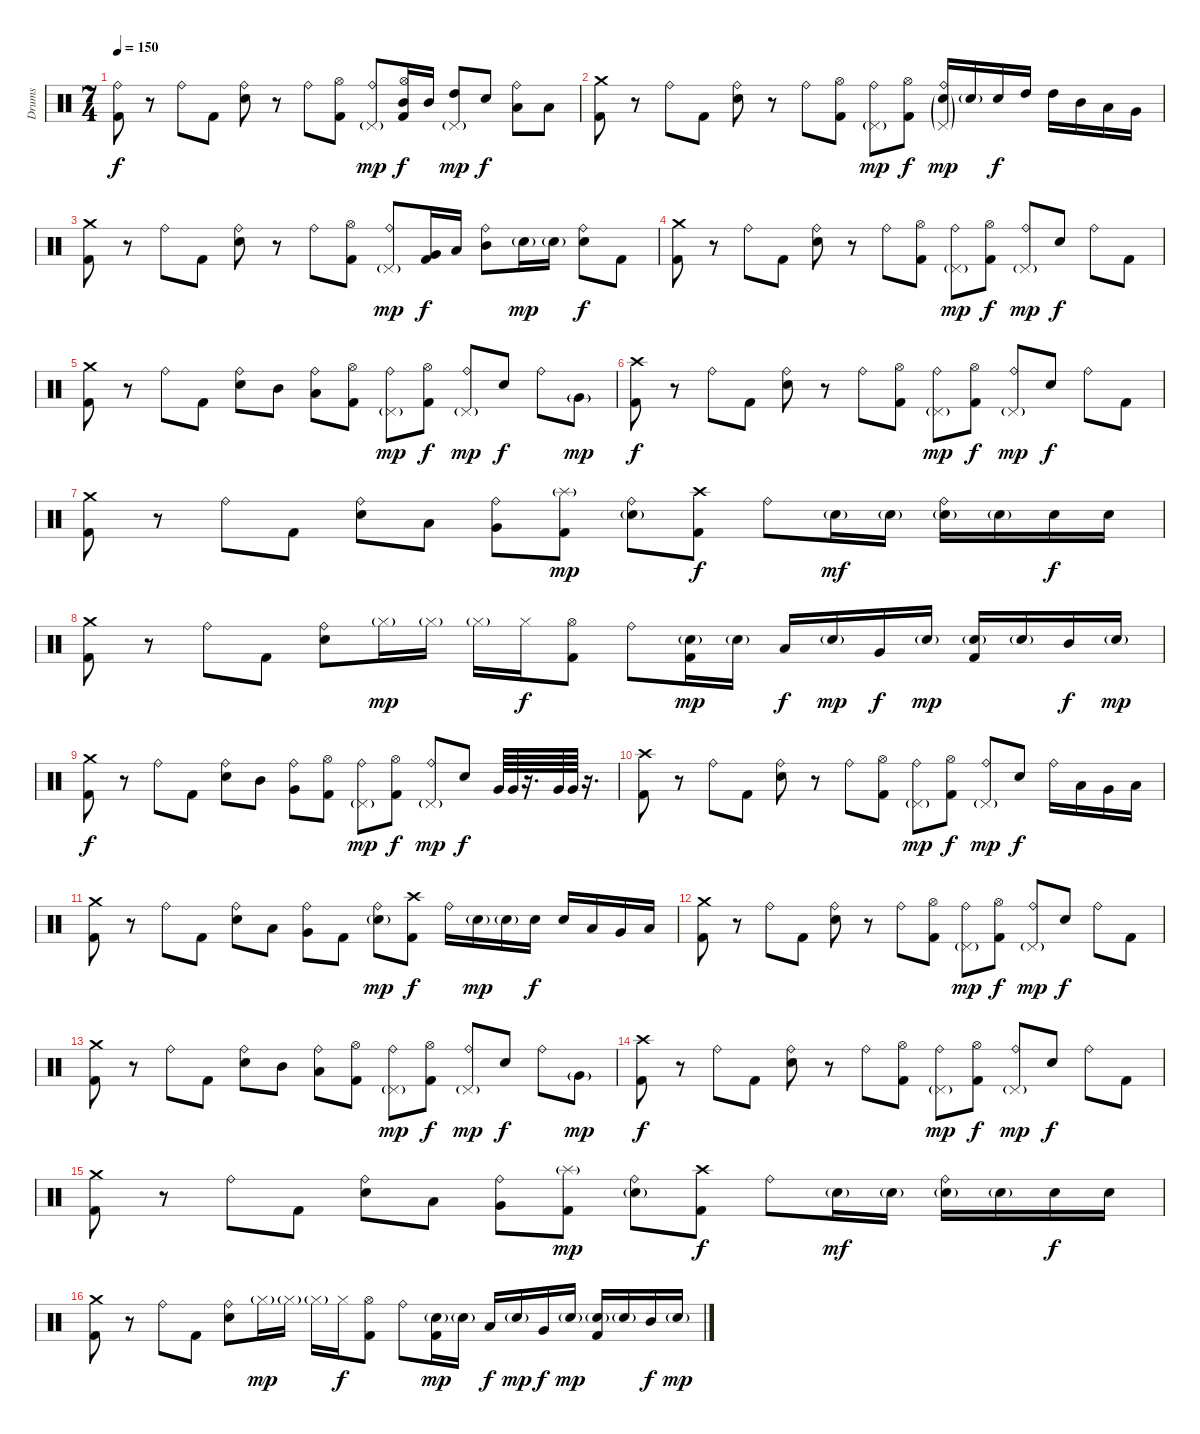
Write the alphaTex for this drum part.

\track ("Drums" "Drums") {instrument percussion}
\staff {score}
\articulation defaults
\ts (7 4)
\tempo 150
\clef neutral
\ks c
("Ride (bell)" "Kick (hit) 2").8{dy f} r.8 "Ride (bell)".8 "Kick (hit) 2".8 ("Ride (bell)" "Electric Snare (hit)").8 r.8 "Ride (bell)".8 ("Hi-Hat (open)" "Kick (hit) 2").8 ("Ride (bell)" "Pedal Hi-Hat (hit)"{g}).8{dy mp} ("Mid Tom (hit)" "Hi-Hat (open)" "Kick (hit) 2").16{dy f} "Mid Tom (hit)".16 ("High Tom (hit)" "Pedal Hi-Hat (hit)"{g}).8{dy mp} "Electric Snare (hit)".8{dy f} ("Ride (bell)" "Low Tom (hit)").8 "Low Floor Tom (hit)".8 |
("Crash medium (hit)" "Kick (hit) 2").8 r.8 "Ride (bell)".8 "Kick (hit) 2".8 ("Ride (bell)" "Electric Snare (hit)").8 r.8 "Ride (bell)".8 ("Hi-Hat (open)" "Kick (hit) 2").8 ("Ride (bell)" "Pedal Hi-Hat (hit)"{g}).8{dy mp} ("Hi-Hat (open)" "Kick (hit) 2").8{dy f} ("Ride (bell)" "Pedal Hi-Hat (hit)"{g} "Electric Snare (hit)"{g}).16{dy mp} "Electric Snare (hit)"{g}.16 "Electric Snare (hit)".16{dy f} "High Tom (hit)".16 "High Tom (hit)".16 "Mid Tom (hit)".16 "Low Tom (hit)".16 "Very Low Tom (hit)".16 |
("Crash medium (hit)" "Kick (hit) 2").8 r.8 "Ride (bell)".8 "Kick (hit) 2".8 ("Ride (bell)" "Electric Snare (hit)").8 r.8 "Ride (bell)".8 ("Hi-Hat (open)" "Kick (hit) 2").8 ("Ride (bell)" "Pedal Hi-Hat (hit)"{g}).8{dy mp} ("Very Low Tom (hit)" "Kick (hit) 2").16{dy f} "Low Tom (hit)".16 ("Ride (bell)" "Mid Tom (hit)").8 "Electric Snare (hit)"{g}.16{dy mp} "Electric Snare (hit)"{g}.16 ("Ride (bell)" "Electric Snare (hit)").8{dy f} "Kick (hit) 2".8 |
("Crash medium (hit)" "Kick (hit) 2").8 r.8 "Ride (bell)".8 "Kick (hit) 2".8 ("Ride (bell)" "Electric Snare (hit)").8 r.8 "Ride (bell)".8 ("Hi-Hat (open)" "Kick (hit) 2").8 ("Ride (bell)" "Pedal Hi-Hat (hit)"{g}).8{dy mp} ("Hi-Hat (open)" "Kick (hit) 2").8{dy f} ("Ride (bell)" "Pedal Hi-Hat (hit)"{g}).8{dy mp} "Electric Snare (hit)".8{dy f} "Ride (bell)".8 "Kick (hit) 2".8 |
("Crash medium (hit)" "Kick (hit) 2").8 r.8 "Ride (bell)".8 "Kick (hit) 2".8 ("Ride (bell)" "Electric Snare (hit)").8 "Mid Tom (hit)".8 ("Ride (bell)" "Low Tom (hit)").8 ("Hi-Hat (open)" "Kick (hit) 2").8 ("Ride (bell)" "Pedal Hi-Hat (hit)"{g}).8{dy mp} ("Hi-Hat (open)" "Kick (hit) 2").8{dy f} ("Ride (bell)" "Pedal Hi-Hat (hit)"{g}).8{dy mp} "Electric Snare (hit)".8{dy f} "Ride (bell)".8 "Very Low Tom (hit)"{g}.8{dy mp} |
("Crash high (hit)" "Kick (hit) 2").8{dy f} r.8 "Ride (bell)".8 "Kick (hit) 2".8 ("Ride (bell)" "Electric Snare (hit)").8 r.8 "Ride (bell)".8 ("Hi-Hat (open)" "Kick (hit) 2").8 ("Ride (bell)" "Pedal Hi-Hat (hit)"{g}).8{dy mp} ("Hi-Hat (open)" "Kick (hit) 2").8{dy f} ("Ride (bell)" "Pedal Hi-Hat (hit)"{g}).8{dy mp} "Electric Snare (hit)".8{dy f} "Ride (bell)".8 "Kick (hit) 2".8 |
("Crash medium (hit)" "Kick (hit) 2").8 r.8 "Ride (bell)".8 "Kick (hit) 2".8 ("Ride (bell)" "Electric Snare (hit)").8 "Low Tom (hit)".8 ("Ride (bell)" "Very Low Tom (hit)").8 ("Splash (hit)"{g} "Kick (hit) 2").8{dy mp} ("Ride (bell)" "Electric Snare (hit)"{g}).8 ("Crash high (hit)" "Kick (hit) 2").8{dy f} "Ride (bell)".8 "Electric Snare (hit)"{g}.16{dy mf} "Electric Snare (hit)"{g}.16 ("Ride (bell)" "Electric Snare (hit)"{g}).16 "Electric Snare (hit)"{g}.16 "Electric Snare (hit)".16{dy f} "Electric Snare (hit)".16 |
("Crash medium (hit)" "Kick (hit) 2").8 r.8 "Ride (bell)".8 "Kick (hit) 2".8 ("Ride (bell)" "Electric Snare (hit)").8 "Hi-Hat (closed)"{g}.16{dy mp} "Hi-Hat (closed)"{g}.16 "Hi-Hat (closed)"{g}.16 "Hi-Hat (closed)".16{dy f} ("Hi-Hat (open)" "Kick (hit) 2").8 "Ride (bell)".8 ("Electric Snare (hit)"{g} "Kick (hit) 2").16{dy mp} "Electric Snare (hit)"{g}.16 "Low Tom (hit)".16{dy f} "Electric Snare (hit)"{g}.16{dy mp} "Very Low Tom (hit)".16{dy f} "Electric Snare (hit)"{g}.16{dy mp} ("Electric Snare (hit)"{g} "Kick (hit) 2").16 "Electric Snare (hit)"{g}.16 "Mid Tom (hit)".16{dy f} "Electric Snare (hit)"{g}.16{dy mp} |
("Crash medium (hit)" "Kick (hit) 2").8{dy f} r.8 "Ride (bell)".8 "Kick (hit) 2".8 ("Ride (bell)" "Electric Snare (hit)").8 "Mid Tom (hit)".8 ("Ride (bell)" "Very Low Tom (hit)").8 ("Hi-Hat (open)" "Kick (hit) 2").8 ("Ride (bell)" "Pedal Hi-Hat (hit)"{g}).8{dy mp} ("Hi-Hat (open)" "Kick (hit) 2").8{dy f} ("Ride (bell)" "Pedal Hi-Hat (hit)"{g}).8{dy mp} "Electric Snare (hit)".8{dy f} "Very Low Tom (hit)".64 "Very Low Tom (hit)".64 r.16{d} "Very Low Tom (hit)".64 "Very Low Tom (hit)".64 r.16{d} |
("Crash high (hit)" "Kick (hit) 2").8 r.8 "Ride (bell)".8 "Kick (hit) 2".8 ("Ride (bell)" "Electric Snare (hit)").8 r.8 "Ride (bell)".8 ("Hi-Hat (open)" "Kick (hit) 2").8 ("Ride (bell)" "Pedal Hi-Hat (hit)"{g}).8{dy mp} ("Hi-Hat (open)" "Kick (hit) 2").8{dy f} ("Ride (bell)" "Pedal Hi-Hat (hit)"{g}).8{dy mp} "Electric Snare (hit)".8{dy f} "Ride (bell)".16 "Low Tom (hit)".16 "Very Low Tom (hit)".16 "Low Floor Tom (hit)".16 |
("Crash medium (hit)" "Kick (hit) 2").8 r.8 "Ride (bell)".8 "Kick (hit) 2".8 ("Ride (bell)" "Electric Snare (hit)").8 "Low Tom (hit)".8 ("Ride (bell)" "Very Low Tom (hit)").8 "Kick (hit) 2".8 ("Ride (bell)" "Electric Snare (hit)"{g}).8{dy mp} ("Crash high (hit)" "Kick (hit) 2").8{dy f} "Ride (bell)".16 "Electric Snare (hit)"{g}.16{dy mp} "Electric Snare (hit)"{g}.16 "Electric Snare (hit)".16{dy f} "Electric Snare (hit)".16 "Low Tom (hit)".16 "Very Low Tom (hit)".16 "Low Floor Tom (hit)".16 |
("Crash medium (hit)" "Kick (hit) 2").8 r.8 "Ride (bell)".8 "Kick (hit) 2".8 ("Ride (bell)" "Electric Snare (hit)").8 r.8 "Ride (bell)".8 ("Hi-Hat (open)" "Kick (hit) 2").8 ("Ride (bell)" "Pedal Hi-Hat (hit)"{g}).8{dy mp} ("Hi-Hat (open)" "Kick (hit) 2").8{dy f} ("Ride (bell)" "Pedal Hi-Hat (hit)"{g}).8{dy mp} "Electric Snare (hit)".8{dy f} "Ride (bell)".8 "Kick (hit) 2".8 |
("Crash medium (hit)" "Kick (hit) 2").8 r.8 "Ride (bell)".8 "Kick (hit) 2".8 ("Ride (bell)" "Electric Snare (hit)").8 "Mid Tom (hit)".8 ("Ride (bell)" "Low Tom (hit)").8 ("Hi-Hat (open)" "Kick (hit) 2").8 ("Ride (bell)" "Pedal Hi-Hat (hit)"{g}).8{dy mp} ("Hi-Hat (open)" "Kick (hit) 2").8{dy f} ("Ride (bell)" "Pedal Hi-Hat (hit)"{g}).8{dy mp} "Electric Snare (hit)".8{dy f} "Ride (bell)".8 "Very Low Tom (hit)"{g}.8{dy mp} |
("Crash high (hit)" "Kick (hit) 2").8{dy f} r.8 "Ride (bell)".8 "Kick (hit) 2".8 ("Ride (bell)" "Electric Snare (hit)").8 r.8 "Ride (bell)".8 ("Hi-Hat (open)" "Kick (hit) 2").8 ("Ride (bell)" "Pedal Hi-Hat (hit)"{g}).8{dy mp} ("Hi-Hat (open)" "Kick (hit) 2").8{dy f} ("Ride (bell)" "Pedal Hi-Hat (hit)"{g}).8{dy mp} "Electric Snare (hit)".8{dy f} "Ride (bell)".8 "Kick (hit) 2".8 |
("Crash medium (hit)" "Kick (hit) 2").8 r.8 "Ride (bell)".8 "Kick (hit) 2".8 ("Ride (bell)" "Electric Snare (hit)").8 "Low Tom (hit)".8 ("Ride (bell)" "Very Low Tom (hit)").8 ("Splash (hit)"{g} "Kick (hit) 2").8{dy mp} ("Ride (bell)" "Electric Snare (hit)"{g}).8 ("Crash high (hit)" "Kick (hit) 2").8{dy f} "Ride (bell)".8 "Electric Snare (hit)"{g}.16{dy mf} "Electric Snare (hit)"{g}.16 ("Ride (bell)" "Electric Snare (hit)"{g}).16 "Electric Snare (hit)"{g}.16 "Electric Snare (hit)".16{dy f} "Electric Snare (hit)".16 |
("Crash medium (hit)" "Kick (hit) 2").8 r.8 "Ride (bell)".8 "Kick (hit) 2".8 ("Ride (bell)" "Electric Snare (hit)").8 "Hi-Hat (closed)"{g}.16{dy mp} "Hi-Hat (closed)"{g}.16 "Hi-Hat (closed)"{g}.16 "Hi-Hat (closed)".16{dy f} ("Hi-Hat (open)" "Kick (hit) 2").8 "Ride (bell)".8 ("Electric Snare (hit)"{g} "Kick (hit) 2").16{dy mp} "Electric Snare (hit)"{g}.16 "Low Tom (hit)".16{dy f} "Electric Snare (hit)"{g}.16{dy mp} "Very Low Tom (hit)".16{dy f} "Electric Snare (hit)"{g}.16{dy mp} ("Electric Snare (hit)"{g} "Kick (hit) 2").16 "Electric Snare (hit)"{g}.16 "Mid Tom (hit)".16{dy f} "Electric Snare (hit)"{g}.16{dy mp}
